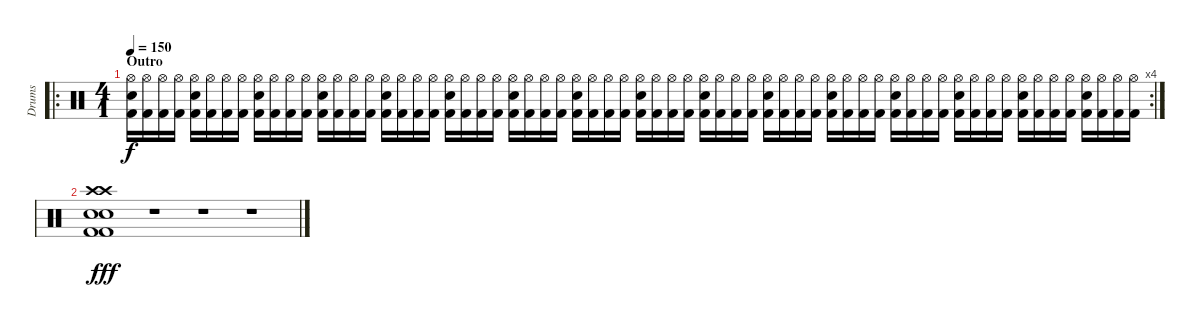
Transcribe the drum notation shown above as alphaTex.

\track ("Drums" "Drums") {instrument percussion}
\staff {score}
\articulation defaults
\ro
\rc 4
\ts (4 1)
\section ("" "Outro")
\tempo 150
\clef neutral
\ks c
("Electric Snare (hit)" "Hi-Hat (open)" "Kick (hit) 2").16{dy f} ("Hi-Hat (open)" "Kick (hit) 2").16 ("Hi-Hat (open)" "Kick (hit) 2").16 ("Hi-Hat (open)" "Kick (hit) 2").16 ("Electric Snare (hit)" "Hi-Hat (open)" "Kick (hit) 2").16 ("Hi-Hat (open)" "Kick (hit) 2").16 ("Hi-Hat (open)" "Kick (hit) 2").16 ("Hi-Hat (open)" "Kick (hit) 2").16 ("Electric Snare (hit)" "Hi-Hat (open)" "Kick (hit) 2").16 ("Hi-Hat (open)" "Kick (hit) 2").16 ("Hi-Hat (open)" "Kick (hit) 2").16 ("Hi-Hat (open)" "Kick (hit) 2").16 ("Electric Snare (hit)" "Hi-Hat (open)" "Kick (hit) 2").16 ("Hi-Hat (open)" "Kick (hit) 2").16 ("Hi-Hat (open)" "Kick (hit) 2").16 ("Hi-Hat (open)" "Kick (hit) 2").16 ("Electric Snare (hit)" "Hi-Hat (open)" "Kick (hit) 2").16 ("Hi-Hat (open)" "Kick (hit) 2").16 ("Hi-Hat (open)" "Kick (hit) 2").16 ("Hi-Hat (open)" "Kick (hit) 2").16 ("Electric Snare (hit)" "Hi-Hat (open)" "Kick (hit) 2").16 ("Hi-Hat (open)" "Kick (hit) 2").16 ("Hi-Hat (open)" "Kick (hit) 2").16 ("Hi-Hat (open)" "Kick (hit) 2").16 ("Electric Snare (hit)" "Hi-Hat (open)" "Kick (hit) 2").16 ("Hi-Hat (open)" "Kick (hit) 2").16 ("Hi-Hat (open)" "Kick (hit) 2").16 ("Hi-Hat (open)" "Kick (hit) 2").16 ("Electric Snare (hit)" "Hi-Hat (open)" "Kick (hit) 2").16 ("Hi-Hat (open)" "Kick (hit) 2").16 ("Hi-Hat (open)" "Kick (hit) 2").16 ("Hi-Hat (open)" "Kick (hit) 2").16 ("Electric Snare (hit)" "Hi-Hat (open)" "Kick (hit) 2").16 ("Hi-Hat (open)" "Kick (hit) 2").16 ("Hi-Hat (open)" "Kick (hit) 2").16 ("Hi-Hat (open)" "Kick (hit) 2").16 ("Electric Snare (hit)" "Hi-Hat (open)" "Kick (hit) 2").16 ("Hi-Hat (open)" "Kick (hit) 2").16 ("Hi-Hat (open)" "Kick (hit) 2").16 ("Hi-Hat (open)" "Kick (hit) 2").16 ("Electric Snare (hit)" "Hi-Hat (open)" "Kick (hit) 2").16 ("Hi-Hat (open)" "Kick (hit) 2").16 ("Hi-Hat (open)" "Kick (hit) 2").16 ("Hi-Hat (open)" "Kick (hit) 2").16 ("Electric Snare (hit)" "Hi-Hat (open)" "Kick (hit) 2").16 ("Hi-Hat (open)" "Kick (hit) 2").16 ("Hi-Hat (open)" "Kick (hit) 2").16 ("Hi-Hat (open)" "Kick (hit) 2").16 ("Electric Snare (hit)" "Hi-Hat (open)" "Kick (hit) 2").16 ("Hi-Hat (open)" "Kick (hit) 2").16 ("Hi-Hat (open)" "Kick (hit) 2").16 ("Hi-Hat (open)" "Kick (hit) 2").16 ("Electric Snare (hit)" "Hi-Hat (open)" "Kick (hit) 2").16 ("Hi-Hat (open)" "Kick (hit) 2").16 ("Hi-Hat (open)" "Kick (hit) 2").16 ("Hi-Hat (open)" "Kick (hit) 2").16 ("Electric Snare (hit)" "Hi-Hat (open)" "Kick (hit) 2").16 ("Hi-Hat (open)" "Kick (hit) 2").16 ("Hi-Hat (open)" "Kick (hit) 2").16 ("Hi-Hat (open)" "Kick (hit) 2").16 ("Electric Snare (hit)" "Hi-Hat (open)" "Kick (hit) 2").16 ("Hi-Hat (open)" "Kick (hit) 2").16 ("Hi-Hat (open)" "Kick (hit) 2").16 ("Hi-Hat (open)" "Kick (hit) 2").16 |
("Crash high (hit)" "Crash high (hit)" "Electric Snare (hit)" "Electric Snare (hit)" "Kick (hit) 2" "Kick (hit) 2").1{dy fff} r.1 r.1 r.1
